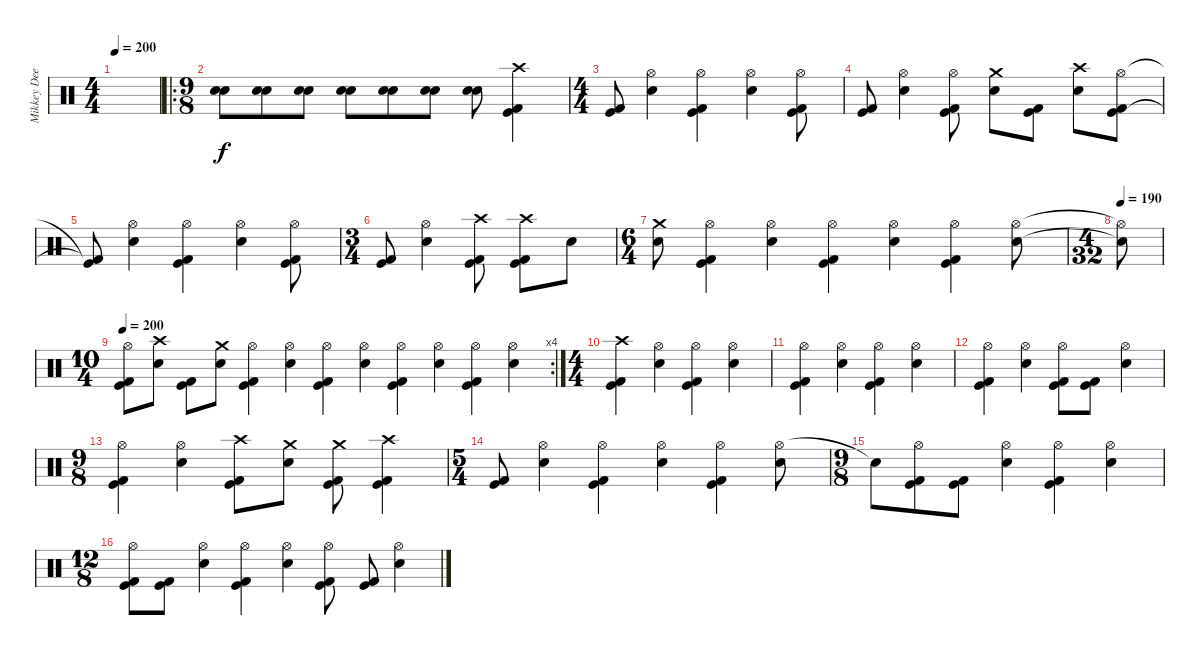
\track ("Mikkey Dee" "Mikkey Dee") {instrument percussion}
\staff {score}
\articulation defaults
\ts (4 4)
\tempo 200
\clef neutral
\ks c
|
\ro
\ts (9 8)
("Electric Snare (hit)" "Snare (hit) 2").8 ("Electric Snare (hit)" "Snare (hit) 2").8 ("Electric Snare (hit)" "Snare (hit) 2").8 ("Electric Snare (hit)" "Snare (hit) 2").8 ("Electric Snare (hit)" "Snare (hit) 2").8 ("Electric Snare (hit)" "Snare (hit) 2").8 ("Electric Snare (hit)" "Snare (hit) 2").8 ("Crash high (hit)" "Kick (hit)" "Kick (hit) 2").4 |
\ts (4 4)
("Kick (hit)" "Kick (hit) 2").8 ("Hi-Hat (open)" "Electric Snare (hit)").4 ("Hi-Hat (open)" "Kick (hit)" "Kick (hit) 2").4 ("Hi-Hat (open)" "Electric Snare (hit)").4 ("Hi-Hat (open)" "Kick (hit)" "Kick (hit) 2").8 |
("Kick (hit)" "Kick (hit) 2").8 ("Hi-Hat (open)" "Electric Snare (hit)").4 ("Hi-Hat (open)" "Kick (hit)" "Kick (hit) 2").8 ("Crash medium (hit)" "Electric Snare (hit)").8 ("Kick (hit)" "Kick (hit) 2").8 ("Crash high (hit)" "Electric Snare (hit)").8 ("Hi-Hat (open)" "Kick (hit)" "Kick (hit) 2").8 |
("Kick (hit)"{t} "Kick (hit) 2"{t}).8 ("Hi-Hat (open)" "Electric Snare (hit)").4 ("Hi-Hat (open)" "Kick (hit)" "Kick (hit) 2").4 ("Hi-Hat (open)" "Electric Snare (hit)").4 ("Hi-Hat (open)" "Kick (hit)" "Kick (hit) 2").8 |
\ts (3 4)
("Kick (hit)" "Kick (hit) 2").8 ("Hi-Hat (open)" "Electric Snare (hit)").4 ("Crash high (hit)" "Kick (hit)" "Kick (hit) 2").8 ("Crash high (hit)" "Kick (hit)" "Kick (hit) 2").8 "Electric Snare (hit)".8 |
\ts (6 4)
("Crash medium (hit)" "Electric Snare (hit)").8 ("Hi-Hat (open)" "Kick (hit)" "Kick (hit) 2").4 ("Hi-Hat (open)" "Electric Snare (hit)").4 ("Hi-Hat (open)" "Kick (hit)" "Kick (hit) 2").4 ("Hi-Hat (open)" "Electric Snare (hit)").4 ("Hi-Hat (open)" "Kick (hit)" "Kick (hit) 2").4 ("Hi-Hat (open)" "Electric Snare (hit)").8 |
\ts (4 32)
\tempo 190
("Hi-Hat (open)"{t} "Snare (hit) 2"{t}).8 |
\rc 4
\ts (10 4)
\tempo 200
("Hi-Hat (open)" "Kick (hit)" "Kick (hit) 2").8 ("Crash high (hit)" "Electric Snare (hit)").8 ("Kick (hit)" "Kick (hit) 2").8 ("Crash medium (hit)" "Electric Snare (hit)").8 ("Hi-Hat (open)" "Kick (hit)" "Kick (hit) 2").4 ("Hi-Hat (open)" "Electric Snare (hit)").4 ("Hi-Hat (open)" "Kick (hit)" "Kick (hit) 2").4 ("Hi-Hat (open)" "Electric Snare (hit)").4 ("Hi-Hat (open)" "Kick (hit)" "Kick (hit) 2").4 ("Hi-Hat (open)" "Electric Snare (hit)").4 ("Hi-Hat (open)" "Kick (hit)" "Kick (hit) 2").4 ("Hi-Hat (open)" "Electric Snare (hit)").4 |
\ts (4 4)
("Crash high (hit)" "Kick (hit)" "Kick (hit) 2").4 ("Hi-Hat (open)" "Electric Snare (hit)").4 ("Hi-Hat (open)" "Kick (hit)" "Kick (hit) 2").4 ("Hi-Hat (open)" "Electric Snare (hit)").4 |
("Hi-Hat (open)" "Kick (hit)" "Kick (hit) 2").4 ("Hi-Hat (open)" "Electric Snare (hit)").4 ("Hi-Hat (open)" "Kick (hit)" "Kick (hit) 2").4 ("Hi-Hat (open)" "Electric Snare (hit)").4 |
("Hi-Hat (open)" "Kick (hit)" "Kick (hit) 2").4 ("Hi-Hat (open)" "Electric Snare (hit)").4 ("Hi-Hat (open)" "Kick (hit)" "Kick (hit) 2").8 ("Kick (hit)" "Kick (hit) 2").8 ("Hi-Hat (open)" "Electric Snare (hit)").4 |
\ts (9 8)
("Hi-Hat (open)" "Kick (hit)" "Kick (hit) 2").4 ("Hi-Hat (open)" "Electric Snare (hit)").4 ("Crash high (hit)" "Kick (hit)" "Kick (hit) 2").8 ("Crash medium (hit)" "Electric Snare (hit)").8 ("Crash medium (hit)" "Kick (hit)" "Kick (hit) 2").8 ("Crash high (hit)" "Kick (hit)" "Kick (hit) 2").4 |
\ts (5 4)
("Kick (hit)" "Kick (hit) 2").8 ("Hi-Hat (open)" "Electric Snare (hit)").4 ("Hi-Hat (open)" "Kick (hit)" "Kick (hit) 2").4 ("Hi-Hat (open)" "Electric Snare (hit)").4 ("Hi-Hat (open)" "Kick (hit)" "Kick (hit) 2").4 ("Hi-Hat (open)" "Electric Snare (hit)").8 |
\ts (9 8)
"Snare (hit) 2"{t}.8 ("Hi-Hat (open)" "Kick (hit)" "Kick (hit) 2").8 ("Kick (hit)" "Kick (hit) 2").8 ("Hi-Hat (open)" "Electric Snare (hit)").4 ("Hi-Hat (open)" "Kick (hit)" "Kick (hit) 2").4 ("Hi-Hat (open)" "Electric Snare (hit)").4 |
\ts (12 8)
("Hi-Hat (open)" "Kick (hit)" "Kick (hit) 2").8 ("Kick (hit)" "Kick (hit) 2").8 ("Hi-Hat (open)" "Electric Snare (hit)").4 ("Hi-Hat (open)" "Kick (hit)" "Kick (hit) 2").4 ("Hi-Hat (open)" "Electric Snare (hit)").4 ("Hi-Hat (open)" "Kick (hit)" "Kick (hit) 2").8 ("Kick (hit)" "Kick (hit) 2").8 ("Hi-Hat (open)" "Electric Snare (hit)").4
